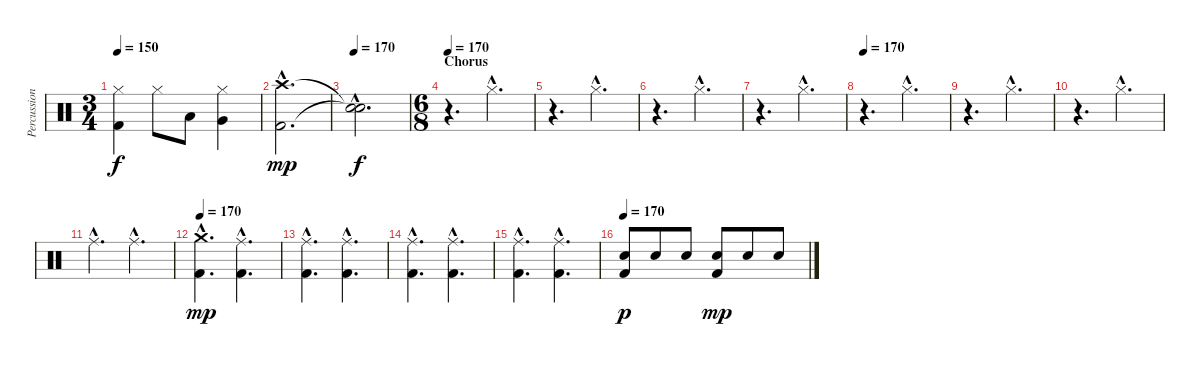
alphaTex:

\track ("Percussion" "Percussion") {instrument percussion}
\staff {score}
\articulation defaults
\ts (3 4)
\tempo 150
\clef neutral
\ks c
("Hi-Hat (closed)" "Kick (hit) 2").4{dy f} "Hi-Hat (closed)".8 "Low Tom (hit)".8 ("Hi-Hat (closed)" "Very Low Tom (hit)").4 |
("Crash high (hit)"{hac} "Kick (hit) 2"{hac}).2{d dy mp} |
\tempo 170
("Snare (hit)"{hac t} "Snare (hit)"{hac t}).2{d dy f} |
\ts (6 8)
\section ("" "Chorus")
\tempo 170
r.4{d volume 6 balance 0} "Hi-Hat (closed)"{hac}.4{d} |
r.4{d balance 0} "Hi-Hat (closed)"{hac}.4{d} |
r.4{d balance 0} "Hi-Hat (closed)"{hac}.4{d} |
r.4{d balance 0} "Hi-Hat (closed)"{hac}.4{d} |
\tempo 170
r.4{d balance 0} "Hi-Hat (closed)"{hac}.4{d} |
r.4{d balance 0} "Hi-Hat (closed)"{hac}.4{d} |
r.4{d balance 0} "Hi-Hat (closed)"{hac}.4{d} |
"Ride (middle)"{hac}.4{d volume 13 balance 8} "Ride (middle)"{hac}.4{d} |
\tempo 170
("Crash medium (hit)"{hac} "Kick (hit) 2"{hac}).4{d dy mp} ("Ride (middle)"{hac} "Kick (hit) 2"{hac}).4{d} |
("Ride (middle)"{hac} "Kick (hit) 2"{hac}).4{d} ("Ride (middle)"{hac} "Kick (hit) 2"{hac}).4{d} |
("Ride (middle)"{hac} "Kick (hit) 2"{hac}).4{d} ("Ride (middle)"{hac} "Kick (hit) 2"{hac}).4{d} |
("Ride (middle)"{hac} "Kick (hit) 2"{hac}).4{d} ("Ride (middle)"{hac} "Kick (hit) 2"{hac}).4{d} |
\tempo 170
("Electric Snare (hit)" "Kick (hit) 2").8{dy p} "Electric Snare (hit)".8 "Electric Snare (hit)".8 ("Electric Snare (hit)" "Kick (hit) 2").8{dy mp} "Electric Snare (hit)".8 "Electric Snare (hit)".8
